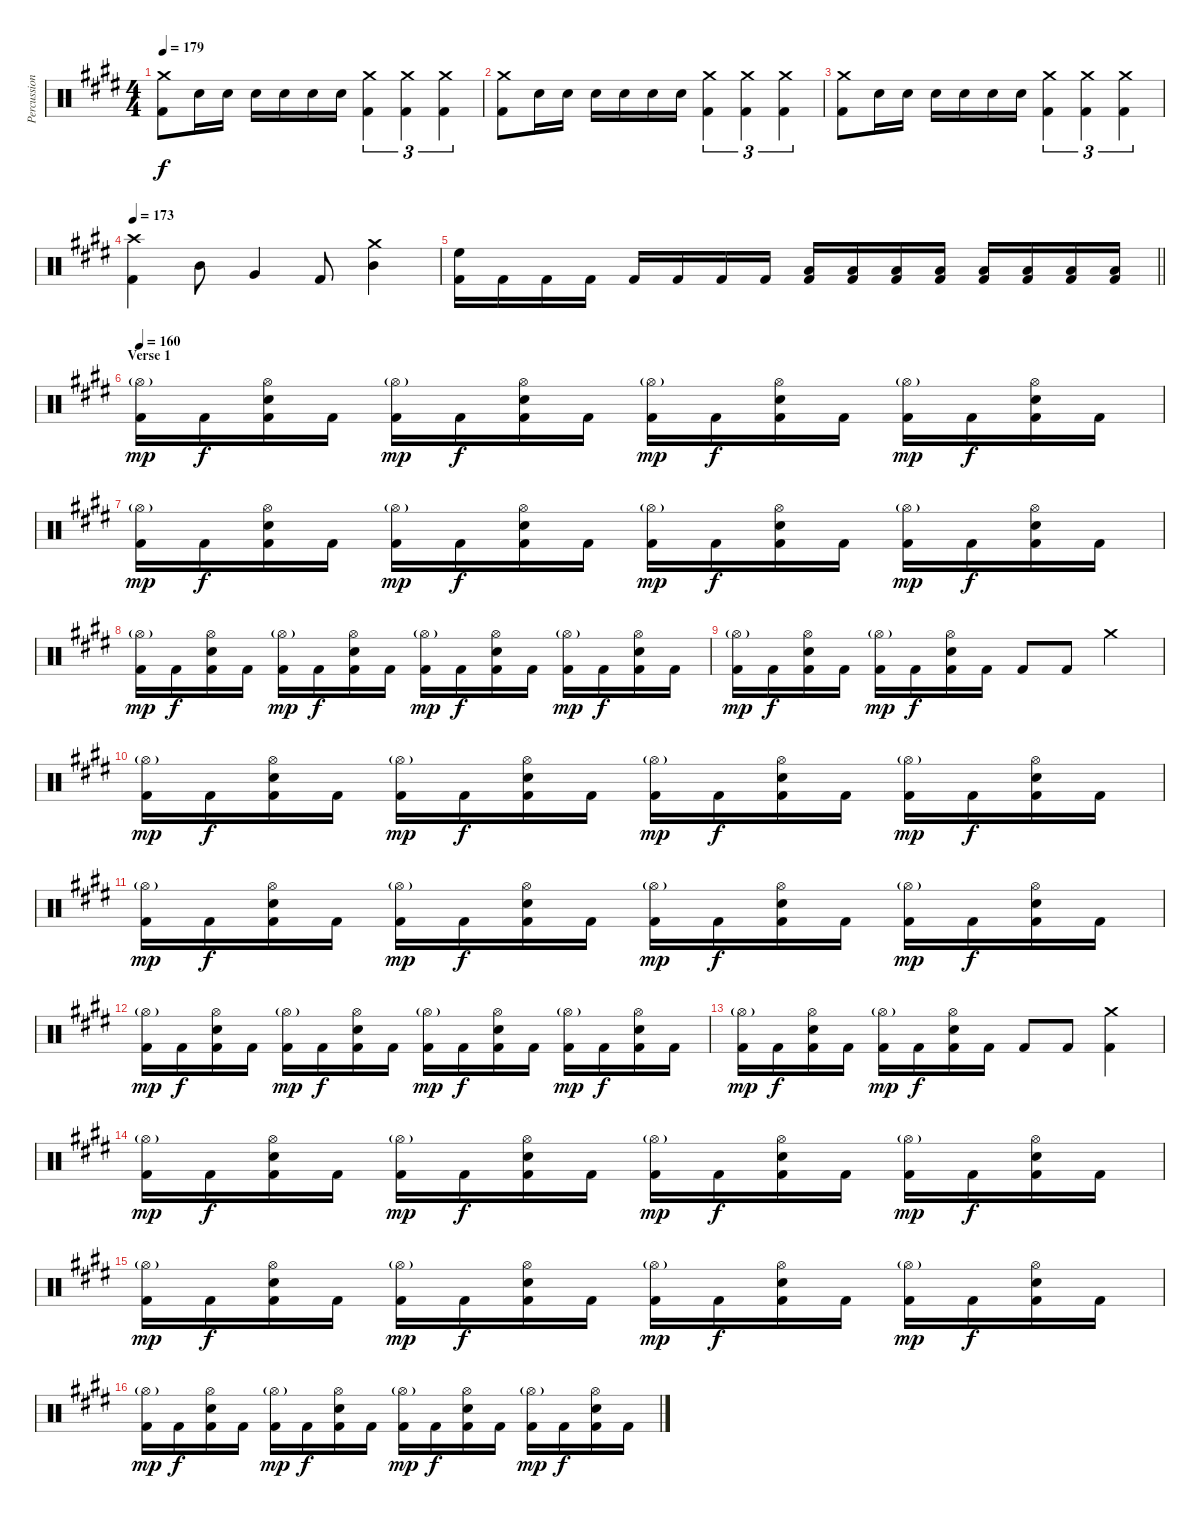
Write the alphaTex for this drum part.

\track ("Percussion (Thomen Stauch)" "Percussion") {instrument percussion}
\staff {score}
\articulation defaults
\ts (4 4)
\tempo 179
\clef neutral
\ks c#minor
("Crash medium (hit)" "Kick (hit) 2").8{dy f} "Snare (hit) 2".16 "Snare (hit) 2".16 "Snare (hit) 2".16 "Snare (hit) 2".16 "Snare (hit) 2".16 "Snare (hit) 2".16 ("Crash medium (hit)" "Kick (hit) 2").4{tu (3 2)} ("Crash medium (hit)" "Kick (hit) 2").4{tu (3 2)} ("Crash medium (hit)" "Kick (hit) 2").4{tu (3 2)} |
("Crash medium (hit)" "Kick (hit) 2").8 "Snare (hit) 2".16 "Snare (hit) 2".16 "Snare (hit) 2".16 "Snare (hit) 2".16 "Snare (hit) 2".16 "Snare (hit) 2".16 ("Crash medium (hit)" "Kick (hit) 2").4{tu (3 2)} ("Crash medium (hit)" "Kick (hit) 2").4{tu (3 2)} ("Crash medium (hit)" "Kick (hit) 2").4{tu (3 2)} |
("Crash medium (hit)" "Kick (hit) 2").8 "Snare (hit) 2".16 "Snare (hit) 2".16 "Snare (hit) 2".16 "Snare (hit) 2".16 "Snare (hit) 2".16 "Snare (hit) 2".16 ("Crash medium (hit)" "Kick (hit) 2").4{tu (3 2)} ("Crash medium (hit)" "Kick (hit) 2").4{tu (3 2)} ("Crash medium (hit)" "Kick (hit) 2").4{tu (3 2)} |
\tempo 173
("Crash high (hit)" "Kick (hit) 2").4 "Mid Tom (hit)".8 "Very Low Tom (hit)".4 "Kick (hit) 2".8 ("Crash medium (hit)" "Mid Tom (hit)").4 |
\barLineRight lightlight
("High Floor Tom (hit)" "Kick (hit) 2").16 "Kick (hit) 2".16 "Kick (hit) 2".16 "Kick (hit) 2".16 "Kick (hit) 2".16 "Kick (hit) 2".16 "Kick (hit) 2".16 "Kick (hit) 2".16 ("Low Tom (hit)" "Kick (hit) 2").16 ("Low Tom (hit)" "Kick (hit) 2").16 ("Low Tom (hit)" "Kick (hit) 2").16 ("Low Tom (hit)" "Kick (hit) 2").16 ("Low Floor Tom (hit)" "Kick (hit) 2").16 ("Low Floor Tom (hit)" "Kick (hit) 2").16 ("Low Floor Tom (hit)" "Kick (hit) 2").16 ("Low Floor Tom (hit)" "Kick (hit) 2").16 |
\section ("" "Verse 1")
\tempo 160
("Hi-Hat (open)"{g} "Kick (hit) 2").16{dy mp} "Kick (hit) 2".16{dy f} ("Hi-Hat (open)" "Snare (hit) 2" "Kick (hit) 2").16 "Kick (hit) 2".16 ("Hi-Hat (open)"{g} "Kick (hit) 2").16{dy mp} "Kick (hit) 2".16{dy f} ("Hi-Hat (open)" "Snare (hit) 2" "Kick (hit) 2").16 "Kick (hit) 2".16 ("Hi-Hat (open)"{g} "Kick (hit) 2").16{dy mp} "Kick (hit) 2".16{dy f} ("Hi-Hat (open)" "Snare (hit) 2" "Kick (hit) 2").16 "Kick (hit) 2".16 ("Hi-Hat (open)"{g} "Kick (hit) 2").16{dy mp} "Kick (hit) 2".16{dy f} ("Hi-Hat (open)" "Snare (hit) 2" "Kick (hit) 2").16 "Kick (hit) 2".16 |
("Hi-Hat (open)"{g} "Kick (hit) 2").16{dy mp} "Kick (hit) 2".16{dy f} ("Hi-Hat (open)" "Snare (hit) 2" "Kick (hit) 2").16 "Kick (hit) 2".16 ("Hi-Hat (open)"{g} "Kick (hit) 2").16{dy mp} "Kick (hit) 2".16{dy f} ("Hi-Hat (open)" "Snare (hit) 2" "Kick (hit) 2").16 "Kick (hit) 2".16 ("Hi-Hat (open)"{g} "Kick (hit) 2").16{dy mp} "Kick (hit) 2".16{dy f} ("Hi-Hat (open)" "Snare (hit) 2" "Kick (hit) 2").16 "Kick (hit) 2".16 ("Hi-Hat (open)"{g} "Kick (hit) 2").16{dy mp} "Kick (hit) 2".16{dy f} ("Hi-Hat (open)" "Snare (hit) 2" "Kick (hit) 2").16 "Kick (hit) 2".16 |
("Hi-Hat (open)"{g} "Kick (hit) 2").16{dy mp} "Kick (hit) 2".16{dy f} ("Hi-Hat (open)" "Snare (hit) 2" "Kick (hit) 2").16 "Kick (hit) 2".16 ("Hi-Hat (open)"{g} "Kick (hit) 2").16{dy mp} "Kick (hit) 2".16{dy f} ("Hi-Hat (open)" "Snare (hit) 2" "Kick (hit) 2").16 "Kick (hit) 2".16 ("Hi-Hat (open)"{g} "Kick (hit) 2").16{dy mp} "Kick (hit) 2".16{dy f} ("Hi-Hat (open)" "Snare (hit) 2" "Kick (hit) 2").16 "Kick (hit) 2".16 ("Hi-Hat (open)"{g} "Kick (hit) 2").16{dy mp} "Kick (hit) 2".16{dy f} ("Hi-Hat (open)" "Snare (hit) 2" "Kick (hit) 2").16 "Kick (hit) 2".16 |
("Hi-Hat (open)"{g} "Kick (hit) 2").16{dy mp} "Kick (hit) 2".16{dy f} ("Hi-Hat (open)" "Snare (hit) 2" "Kick (hit) 2").16 "Kick (hit) 2".16 ("Hi-Hat (open)"{g} "Kick (hit) 2").16{dy mp} "Kick (hit) 2".16{dy f} ("Hi-Hat (open)" "Snare (hit) 2" "Kick (hit) 2").16 "Kick (hit) 2".16 "Kick (hit) 2".8 "Kick (hit) 2".8 "Crash medium (hit)".4 |
("Hi-Hat (open)"{g} "Kick (hit) 2").16{dy mp} "Kick (hit) 2".16{dy f} ("Hi-Hat (open)" "Snare (hit) 2" "Kick (hit) 2").16 "Kick (hit) 2".16 ("Hi-Hat (open)"{g} "Kick (hit) 2").16{dy mp} "Kick (hit) 2".16{dy f} ("Hi-Hat (open)" "Snare (hit) 2" "Kick (hit) 2").16 "Kick (hit) 2".16 ("Hi-Hat (open)"{g} "Kick (hit) 2").16{dy mp} "Kick (hit) 2".16{dy f} ("Hi-Hat (open)" "Snare (hit) 2" "Kick (hit) 2").16 "Kick (hit) 2".16 ("Hi-Hat (open)"{g} "Kick (hit) 2").16{dy mp} "Kick (hit) 2".16{dy f} ("Hi-Hat (open)" "Snare (hit) 2" "Kick (hit) 2").16 "Kick (hit) 2".16 |
("Hi-Hat (open)"{g} "Kick (hit) 2").16{dy mp} "Kick (hit) 2".16{dy f} ("Hi-Hat (open)" "Snare (hit) 2" "Kick (hit) 2").16 "Kick (hit) 2".16 ("Hi-Hat (open)"{g} "Kick (hit) 2").16{dy mp} "Kick (hit) 2".16{dy f} ("Hi-Hat (open)" "Snare (hit) 2" "Kick (hit) 2").16 "Kick (hit) 2".16 ("Hi-Hat (open)"{g} "Kick (hit) 2").16{dy mp} "Kick (hit) 2".16{dy f} ("Hi-Hat (open)" "Snare (hit) 2" "Kick (hit) 2").16 "Kick (hit) 2".16 ("Hi-Hat (open)"{g} "Kick (hit) 2").16{dy mp} "Kick (hit) 2".16{dy f} ("Hi-Hat (open)" "Snare (hit) 2" "Kick (hit) 2").16 "Kick (hit) 2".16 |
("Hi-Hat (open)"{g} "Kick (hit) 2").16{dy mp} "Kick (hit) 2".16{dy f} ("Hi-Hat (open)" "Snare (hit) 2" "Kick (hit) 2").16 "Kick (hit) 2".16 ("Hi-Hat (open)"{g} "Kick (hit) 2").16{dy mp} "Kick (hit) 2".16{dy f} ("Hi-Hat (open)" "Snare (hit) 2" "Kick (hit) 2").16 "Kick (hit) 2".16 ("Hi-Hat (open)"{g} "Kick (hit) 2").16{dy mp} "Kick (hit) 2".16{dy f} ("Hi-Hat (open)" "Snare (hit) 2" "Kick (hit) 2").16 "Kick (hit) 2".16 ("Hi-Hat (open)"{g} "Kick (hit) 2").16{dy mp} "Kick (hit) 2".16{dy f} ("Hi-Hat (open)" "Snare (hit) 2" "Kick (hit) 2").16 "Kick (hit) 2".16 |
("Hi-Hat (open)"{g} "Kick (hit) 2").16{dy mp} "Kick (hit) 2".16{dy f} ("Hi-Hat (open)" "Snare (hit) 2" "Kick (hit) 2").16 "Kick (hit) 2".16 ("Hi-Hat (open)"{g} "Kick (hit) 2").16{dy mp} "Kick (hit) 2".16{dy f} ("Hi-Hat (open)" "Snare (hit) 2" "Kick (hit) 2").16 "Kick (hit) 2".16 "Kick (hit) 2".8 "Kick (hit) 2".8 ("Crash medium (hit)" "Kick (hit) 2").4 |
("Hi-Hat (open)"{g} "Kick (hit) 2").16{dy mp} "Kick (hit) 2".16{dy f} ("Hi-Hat (open)" "Snare (hit) 2" "Kick (hit) 2").16 "Kick (hit) 2".16 ("Hi-Hat (open)"{g} "Kick (hit) 2").16{dy mp} "Kick (hit) 2".16{dy f} ("Hi-Hat (open)" "Snare (hit) 2" "Kick (hit) 2").16 "Kick (hit) 2".16 ("Hi-Hat (open)"{g} "Kick (hit) 2").16{dy mp} "Kick (hit) 2".16{dy f} ("Hi-Hat (open)" "Snare (hit) 2" "Kick (hit) 2").16 "Kick (hit) 2".16 ("Hi-Hat (open)"{g} "Kick (hit) 2").16{dy mp} "Kick (hit) 2".16{dy f} ("Hi-Hat (open)" "Snare (hit) 2" "Kick (hit) 2").16 "Kick (hit) 2".16 |
("Hi-Hat (open)"{g} "Kick (hit) 2").16{dy mp} "Kick (hit) 2".16{dy f} ("Hi-Hat (open)" "Snare (hit) 2" "Kick (hit) 2").16 "Kick (hit) 2".16 ("Hi-Hat (open)"{g} "Kick (hit) 2").16{dy mp} "Kick (hit) 2".16{dy f} ("Hi-Hat (open)" "Snare (hit) 2" "Kick (hit) 2").16 "Kick (hit) 2".16 ("Hi-Hat (open)"{g} "Kick (hit) 2").16{dy mp} "Kick (hit) 2".16{dy f} ("Hi-Hat (open)" "Snare (hit) 2" "Kick (hit) 2").16 "Kick (hit) 2".16 ("Hi-Hat (open)"{g} "Kick (hit) 2").16{dy mp} "Kick (hit) 2".16{dy f} ("Hi-Hat (open)" "Snare (hit) 2" "Kick (hit) 2").16 "Kick (hit) 2".16 |
("Hi-Hat (open)"{g} "Kick (hit) 2").16{dy mp} "Kick (hit) 2".16{dy f} ("Hi-Hat (open)" "Snare (hit) 2" "Kick (hit) 2").16 "Kick (hit) 2".16 ("Hi-Hat (open)"{g} "Kick (hit) 2").16{dy mp} "Kick (hit) 2".16{dy f} ("Hi-Hat (open)" "Snare (hit) 2" "Kick (hit) 2").16 "Kick (hit) 2".16 ("Hi-Hat (open)"{g} "Kick (hit) 2").16{dy mp} "Kick (hit) 2".16{dy f} ("Hi-Hat (open)" "Snare (hit) 2" "Kick (hit) 2").16 "Kick (hit) 2".16 ("Hi-Hat (open)"{g} "Kick (hit) 2").16{dy mp} "Kick (hit) 2".16{dy f} ("Hi-Hat (open)" "Snare (hit) 2" "Kick (hit) 2").16 "Kick (hit) 2".16
